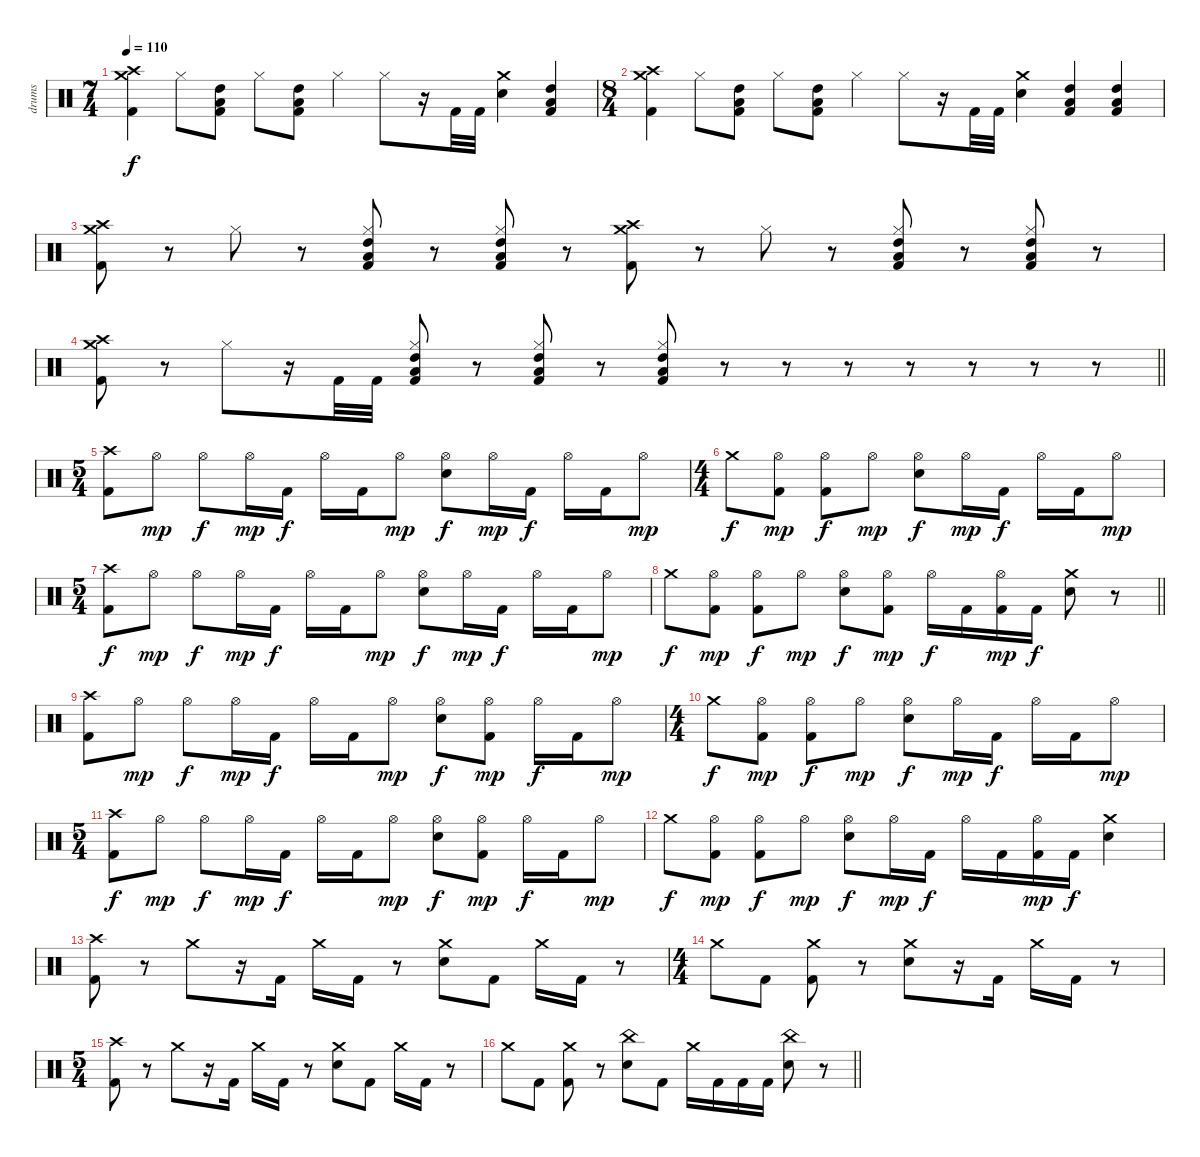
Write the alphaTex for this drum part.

\track ("drums" "drums") {instrument percussion}
\staff {score}
\articulation defaults
\ts (7 4)
\section ("" "")
\tempo 110
\clef neutral
\ks c
("Crash high (hit)" "Crash medium (hit)" "Kick (hit) 2").4{dy f} "Hi-Hat (closed)".8 ("High Tom (hit)" "Low Floor Tom (hit)" "Kick (hit) 2").8 "Hi-Hat (closed)".8 ("High Tom (hit)" "Low Floor Tom (hit)" "Kick (hit) 2").8 "Hi-Hat (closed)".4 "Hi-Hat (closed)".8 r.16 "Kick (hit) 2".32 "Kick (hit) 2".32 ("Crash medium (hit)" "Electric Snare (hit)").4 ("High Tom (hit)" "Low Floor Tom (hit)" "Kick (hit) 2").4 |
\ts (8 4)
("Crash high (hit)" "Crash medium (hit)" "Kick (hit) 2").4 "Hi-Hat (closed)".8 ("High Tom (hit)" "Low Floor Tom (hit)" "Kick (hit) 2").8 "Hi-Hat (closed)".8 ("High Tom (hit)" "Low Floor Tom (hit)" "Kick (hit) 2").8 "Hi-Hat (closed)".4 "Hi-Hat (closed)".8 r.16 "Kick (hit) 2".32 "Kick (hit) 2".32 ("Crash medium (hit)" "Electric Snare (hit)").4 ("High Tom (hit)" "Low Floor Tom (hit)" "Kick (hit) 2").4 ("High Tom (hit)" "Low Floor Tom (hit)" "Kick (hit) 2").4 |
("Crash high (hit)" "Crash medium (hit)" "Kick (hit) 2").8 r.8 "Hi-Hat (closed)".8 r.8 ("Hi-Hat (closed)" "High Tom (hit)" "Low Floor Tom (hit)" "Kick (hit) 2").8 r.8 ("Hi-Hat (closed)" "High Tom (hit)" "Low Floor Tom (hit)" "Kick (hit) 2").8 r.8 ("Crash high (hit)" "Crash medium (hit)" "Kick (hit) 2").8 r.8 "Hi-Hat (closed)".8 r.8 ("Hi-Hat (closed)" "High Tom (hit)" "Low Floor Tom (hit)" "Kick (hit) 2").8 r.8 ("Hi-Hat (closed)" "High Tom (hit)" "Low Floor Tom (hit)" "Kick (hit) 2").8 r.8 |
\barLineRight lightlight
("Crash high (hit)" "Crash medium (hit)" "Kick (hit) 2").8 r.8 "Hi-Hat (closed)".8 r.16 "Kick (hit) 2".32 "Kick (hit) 2".32 ("Hi-Hat (closed)" "High Tom (hit)" "Low Floor Tom (hit)" "Kick (hit) 2").8 r.8 ("Hi-Hat (closed)" "High Tom (hit)" "Low Floor Tom (hit)" "Kick (hit) 2").8 r.8 ("Hi-Hat (closed)" "High Tom (hit)" "Low Floor Tom (hit)" "Kick (hit) 2").8 r.8 r.8 r.8 r.8 r.8 r.8 r.8 |
\ts (5 4)
\section ("" "")
("Crash high (hit)" "Kick (hit) 2").8 "Hi-Hat (open)".8{dy mp} "Hi-Hat (open)".8{dy f} "Hi-Hat (open)".16{dy mp} "Kick (hit) 2".16{dy f} "Hi-Hat (open)".16 "Kick (hit) 2".16 "Hi-Hat (open)".8{dy mp} ("Hi-Hat (open)" "Electric Snare (hit)").8{dy f} "Hi-Hat (open)".16{dy mp} "Kick (hit) 2".16{dy f} "Hi-Hat (open)".16 "Kick (hit) 2".16 "Hi-Hat (open)".8{dy mp} |
\ts (4 4)
"Crash medium (hit)".8{dy f} ("Hi-Hat (open)" "Kick (hit) 2").8{dy mp} ("Hi-Hat (open)" "Kick (hit) 2").8{dy f} "Hi-Hat (open)".8{dy mp} ("Hi-Hat (open)" "Electric Snare (hit)").8{dy f} "Hi-Hat (open)".16{dy mp} "Kick (hit) 2".16{dy f} "Hi-Hat (open)".16 "Kick (hit) 2".16 "Hi-Hat (open)".8{dy mp} |
\ts (5 4)
("Crash high (hit)" "Kick (hit) 2").8{dy f} "Hi-Hat (open)".8{dy mp} "Hi-Hat (open)".8{dy f} "Hi-Hat (open)".16{dy mp} "Kick (hit) 2".16{dy f} "Hi-Hat (open)".16 "Kick (hit) 2".16 "Hi-Hat (open)".8{dy mp} ("Hi-Hat (open)" "Electric Snare (hit)").8{dy f} "Hi-Hat (open)".16{dy mp} "Kick (hit) 2".16{dy f} "Hi-Hat (open)".16 "Kick (hit) 2".16 "Hi-Hat (open)".8{dy mp} |
\barLineRight lightlight "Crash medium (hit)".8{dy f}
("Hi-Hat (open)" "Kick (hit) 2").8{dy mp} ("Hi-Hat (open)" "Kick (hit) 2").8{dy f} "Hi-Hat (open)".8{dy mp} ("Hi-Hat (open)" "Electric Snare (hit)").8{dy f} ("Hi-Hat (open)" "Kick (hit) 2").8{dy mp} "Hi-Hat (open)".16{dy f} "Kick (hit) 2".16 ("Hi-Hat (open)" "Kick (hit) 2").16{dy mp} "Kick (hit) 2".16{dy f} ("Crash medium (hit)" "Electric Snare (hit)").8 r.8 |
\section ("" "")
("Crash high (hit)" "Kick (hit) 2").8 "Hi-Hat (open)".8{dy mp} "Hi-Hat (open)".8{dy f} "Hi-Hat (open)".16{dy mp} "Kick (hit) 2".16{dy f} "Hi-Hat (open)".16 "Kick (hit) 2".16 "Hi-Hat (open)".8{dy mp} ("Hi-Hat (open)" "Electric Snare (hit)").8{dy f} ("Hi-Hat (open)" "Kick (hit) 2").8{dy mp} "Hi-Hat (open)".16{dy f} "Kick (hit) 2".16 "Hi-Hat (open)".8{dy mp} |
\ts (4 4)
"Crash medium (hit)".8{dy f} ("Hi-Hat (open)" "Kick (hit) 2").8{dy mp} ("Hi-Hat (open)" "Kick (hit) 2").8{dy f} "Hi-Hat (open)".8{dy mp} ("Hi-Hat (open)" "Electric Snare (hit)").8{dy f} "Hi-Hat (open)".16{dy mp} "Kick (hit) 2".16{dy f} "Hi-Hat (open)".16 "Kick (hit) 2".16 "Hi-Hat (open)".8{dy mp} |
\ts (5 4)
("Crash high (hit)" "Kick (hit) 2").8{dy f} "Hi-Hat (open)".8{dy mp} "Hi-Hat (open)".8{dy f} "Hi-Hat (open)".16{dy mp} "Kick (hit) 2".16{dy f} "Hi-Hat (open)".16 "Kick (hit) 2".16 "Hi-Hat (open)".8{dy mp} ("Hi-Hat (open)" "Electric Snare (hit)").8{dy f} ("Hi-Hat (open)" "Kick (hit) 2").8{dy mp} "Hi-Hat (open)".16{dy f} "Kick (hit) 2".16 "Hi-Hat (open)".8{dy mp} |
"Crash medium (hit)".8{dy f} ("Hi-Hat (open)" "Kick (hit) 2").8{dy mp} ("Hi-Hat (open)" "Kick (hit) 2").8{dy f} "Hi-Hat (open)".8{dy mp} ("Hi-Hat (open)" "Electric Snare (hit)").8{dy f} "Hi-Hat (open)".16{dy mp} "Kick (hit) 2".16{dy f} "Hi-Hat (open)".16 "Kick (hit) 2".16 ("Hi-Hat (open)" "Kick (hit) 2").16{dy mp} "Kick (hit) 2".16{dy f} ("Crash medium (hit)" "Electric Snare (hit)").4 |
("Crash high (hit)" "Kick (hit) 2").8 r.8 "Crash medium (hit)".8 r.16 "Kick (hit) 2".16 "Crash medium (hit)".16 "Kick (hit) 2".16 r.8 ("Crash medium (hit)" "Electric Snare (hit)").8 "Kick (hit) 2".8 "Crash medium (hit)".16 "Kick (hit) 2".16 r.8 |
\ts (4 4)
"Crash medium (hit)".8 "Kick (hit) 2".8 ("Crash medium (hit)" "Kick (hit) 2").8 r.8 ("Crash medium (hit)" "Electric Snare (hit)").8 r.16 "Kick (hit) 2".16 "Crash medium (hit)".16 "Kick (hit) 2".16 r.8 |
\ts (5 4)
("Crash high (hit)" "Kick (hit) 2").8 r.8 "Crash medium (hit)".8 r.16 "Kick (hit) 2".16 "Crash medium (hit)".16 "Kick (hit) 2".16 r.8 ("Crash medium (hit)" "Electric Snare (hit)").8 "Kick (hit) 2".8 "Crash medium (hit)".16 "Kick (hit) 2".16 r.8 |
\barLineRight lightlight "Crash medium (hit)".8 "Kick (hit) 2".8
("Crash medium (hit)" "Kick (hit) 2").8 r.8 ("China (hit)" "Electric Snare (hit)").8 "Kick (hit) 2".8 "Crash medium (hit)".16 "Kick (hit) 2".16 "Kick (hit) 2".16 "Kick (hit) 2".16 ("China (hit)" "Electric Snare (hit)").8 r.8
